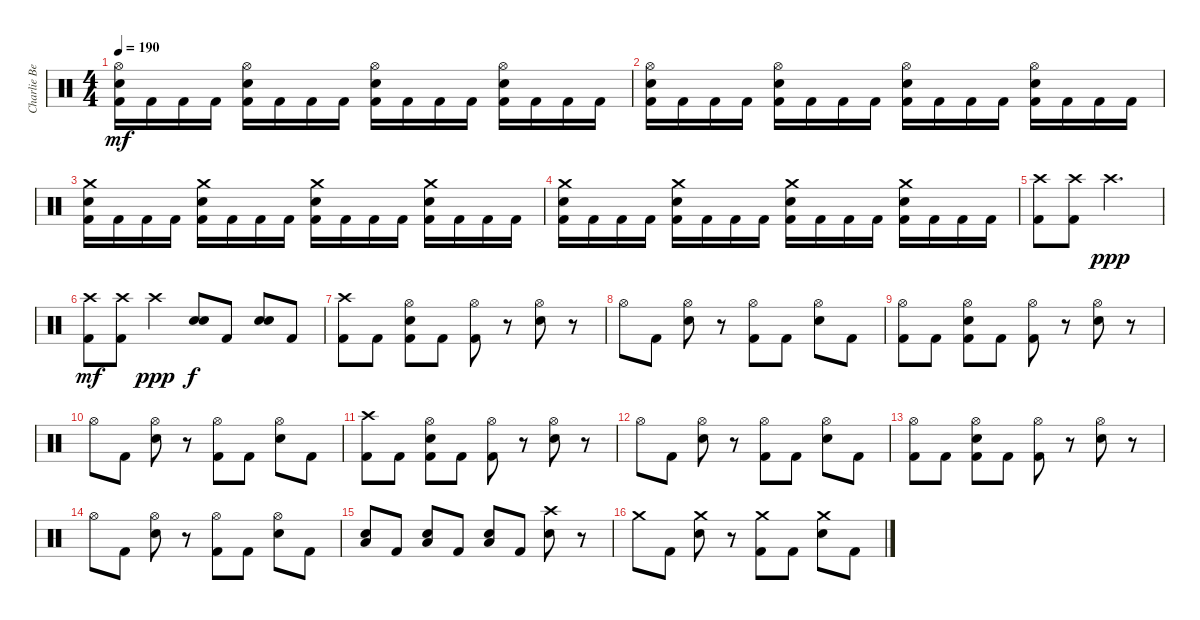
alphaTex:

\track ("Charlie Benante" "Charlie Be") {instrument percussion}
\staff {score}
\articulation defaults
\ts (4 4)
\tempo 190
\clef neutral
\ks c
("Kick (hit) 2" "Snare (hit) 2" "Hi-Hat (open)").16{dy mf} "Kick (hit) 2".16 "Kick (hit) 2".16 "Kick (hit) 2".16 ("Kick (hit) 2" "Snare (hit) 2" "Hi-Hat (open)").16 "Kick (hit) 2".16 "Kick (hit) 2".16 "Kick (hit) 2".16 ("Kick (hit) 2" "Snare (hit) 2" "Hi-Hat (open)").16 "Kick (hit) 2".16 "Kick (hit) 2".16 "Kick (hit) 2".16 ("Kick (hit) 2" "Snare (hit) 2" "Hi-Hat (open)").16 "Kick (hit) 2".16 "Kick (hit) 2".16 "Kick (hit) 2".16 |
("Kick (hit) 2" "Snare (hit) 2" "Hi-Hat (open)").16 "Kick (hit) 2".16 "Kick (hit) 2".16 "Kick (hit) 2".16 ("Kick (hit) 2" "Snare (hit) 2" "Hi-Hat (open)").16 "Kick (hit) 2".16 "Kick (hit) 2".16 "Kick (hit) 2".16 ("Kick (hit) 2" "Snare (hit) 2" "Hi-Hat (open)").16 "Kick (hit) 2".16 "Kick (hit) 2".16 "Kick (hit) 2".16 ("Kick (hit) 2" "Snare (hit) 2" "Hi-Hat (open)").16 "Kick (hit) 2".16 "Kick (hit) 2".16 "Kick (hit) 2".16 |
("Kick (hit) 2" "Snare (hit) 2" "Crash medium (hit)").16 "Kick (hit) 2".16 "Kick (hit) 2".16 "Kick (hit) 2".16 ("Kick (hit) 2" "Snare (hit) 2" "Crash medium (hit)").16 "Kick (hit) 2".16 "Kick (hit) 2".16 "Kick (hit) 2".16 ("Kick (hit) 2" "Snare (hit) 2" "Crash medium (hit)").16 "Kick (hit) 2".16 "Kick (hit) 2".16 "Kick (hit) 2".16 ("Kick (hit) 2" "Snare (hit) 2" "Crash medium (hit)").16 "Kick (hit) 2".16 "Kick (hit) 2".16 "Kick (hit) 2".16 |
("Kick (hit) 2" "Snare (hit) 2" "Crash medium (hit)").16 "Kick (hit) 2".16 "Kick (hit) 2".16 "Kick (hit) 2".16 ("Kick (hit) 2" "Snare (hit) 2" "Crash medium (hit)").16 "Kick (hit) 2".16 "Kick (hit) 2".16 "Kick (hit) 2".16 ("Kick (hit) 2" "Snare (hit) 2" "Crash medium (hit)").16 "Kick (hit) 2".16 "Kick (hit) 2".16 "Kick (hit) 2".16 ("Kick (hit) 2" "Snare (hit) 2" "Crash medium (hit)").16 "Kick (hit) 2".16 "Kick (hit) 2".16 "Kick (hit) 2".16 |
("Kick (hit) 2" "Crash high (hit)").8 ("Kick (hit) 2" "Crash high (hit)").8 "Crash high (hit)".2{d dy ppp} |
("Kick (hit) 2" "Crash high (hit)").8{dy mf} ("Kick (hit) 2" "Crash high (hit)").8 "Crash high (hit)".4{dy ppp} ("Snare (hit) 2" "Snare (hit) 2").8{bd 480 dy f} "Kick (hit) 2".8 ("Snare (hit) 2" "Snare (hit) 2").8{bd 480} "Kick (hit) 2".8 |
("Kick (hit) 2" "Crash high (hit)").8 "Kick (hit) 2".8 ("Kick (hit) 2" "Hi-Hat (open)" "Snare (hit) 2").8 "Kick (hit) 2".8 ("Kick (hit) 2" "Hi-Hat (open)").8 r.8 ("Snare (hit) 2" "Hi-Hat (open)").8 r.8 |
"Hi-Hat (open)".8 "Kick (hit) 2".8 ("Snare (hit) 2" "Hi-Hat (open)").8 r.8 ("Kick (hit) 2" "Hi-Hat (open)").8 "Kick (hit) 2".8 ("Snare (hit) 2" "Hi-Hat (open)").8 "Kick (hit) 2".8 |
("Kick (hit) 2" "Hi-Hat (open)").8 "Kick (hit) 2".8 ("Kick (hit) 2" "Hi-Hat (open)" "Snare (hit) 2").8 "Kick (hit) 2".8 ("Kick (hit) 2" "Hi-Hat (open)").8 r.8 ("Snare (hit) 2" "Hi-Hat (open)").8 r.8 |
"Hi-Hat (open)".8 "Kick (hit) 2".8 ("Snare (hit) 2" "Hi-Hat (open)").8 r.8 ("Kick (hit) 2" "Hi-Hat (open)").8 "Kick (hit) 2".8 ("Snare (hit) 2" "Hi-Hat (open)").8 "Kick (hit) 2".8 |
("Kick (hit) 2" "Crash high (hit)").8 "Kick (hit) 2".8 ("Kick (hit) 2" "Hi-Hat (open)" "Snare (hit) 2").8 "Kick (hit) 2".8 ("Kick (hit) 2" "Hi-Hat (open)").8 r.8 ("Snare (hit) 2" "Hi-Hat (open)").8 r.8 |
"Hi-Hat (open)".8 "Kick (hit) 2".8 ("Snare (hit) 2" "Hi-Hat (open)").8 r.8 ("Kick (hit) 2" "Hi-Hat (open)").8 "Kick (hit) 2".8 ("Snare (hit) 2" "Hi-Hat (open)").8 "Kick (hit) 2".8 |
("Kick (hit) 2" "Hi-Hat (open)").8 "Kick (hit) 2".8 ("Kick (hit) 2" "Hi-Hat (open)" "Snare (hit) 2").8 "Kick (hit) 2".8 ("Kick (hit) 2" "Hi-Hat (open)").8 r.8 ("Snare (hit) 2" "Hi-Hat (open)").8 r.8 |
"Hi-Hat (open)".8 "Kick (hit) 2".8 ("Snare (hit) 2" "Hi-Hat (open)").8 r.8 ("Kick (hit) 2" "Hi-Hat (open)").8 "Kick (hit) 2".8 ("Snare (hit) 2" "Hi-Hat (open)").8 "Kick (hit) 2".8 |
("Snare (hit) 2" "Low Tom (hit)").8 "Kick (hit) 2".8 ("Snare (hit) 2" "Low Tom (hit)").8 "Kick (hit) 2".8 ("Snare (hit) 2" "Low Tom (hit)").8 "Kick (hit) 2".8 ("Snare (hit) 2" "Crash high (hit)").8 r.8 |
"Crash medium (hit)".8 "Kick (hit) 2".8 ("Snare (hit) 2" "Crash medium (hit)").8 r.8 ("Kick (hit) 2" "Crash medium (hit)").8 "Kick (hit) 2".8 ("Snare (hit) 2" "Crash medium (hit)").8 "Kick (hit) 2".8
